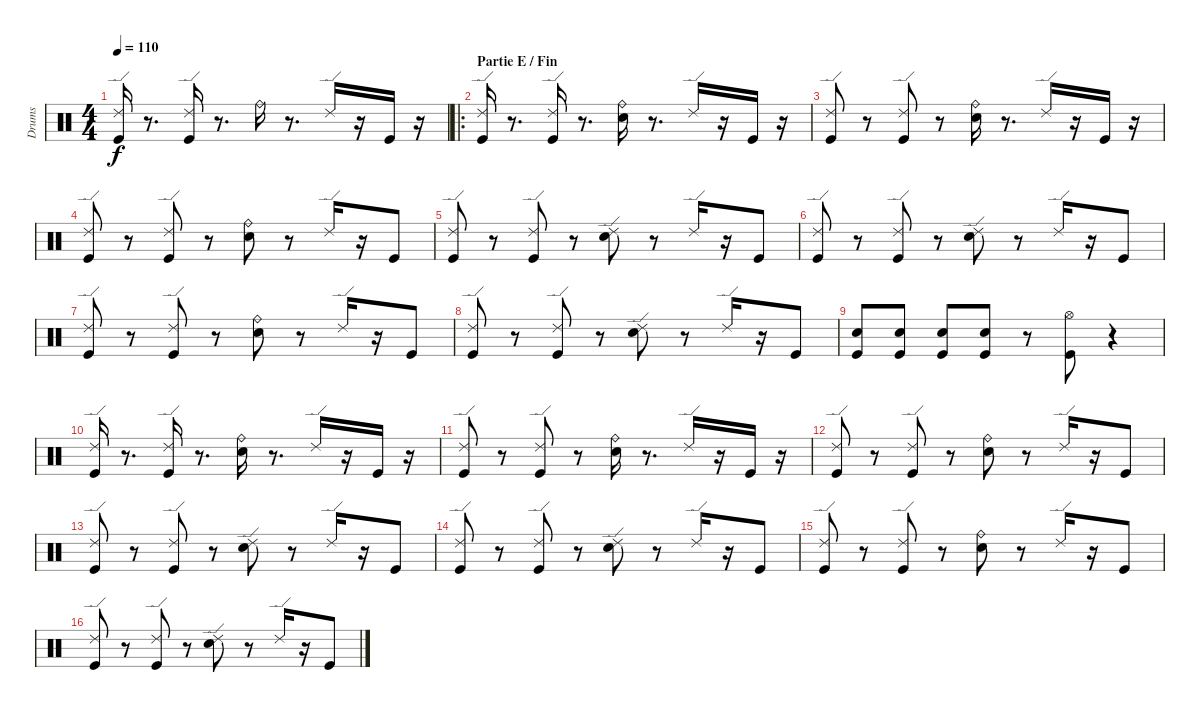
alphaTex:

\track ("Drums" "Drums") {instrument percussion}
\staff {score}
\articulation defaults
\ts (4 4)
\tempo 110
\clef neutral
\ks c
("Ride (edge) 2" "Kick (hit)").16{dy f} r.8{d} ("Ride (edge) 2" "Kick (hit)").16 r.8{d} "Ride (bell)".16 r.8{d} "Ride (edge) 2".16 r.16 "Kick (hit)".16 r.16 |
\ro
\section ("" "Partie E / Fin")
("Ride (edge) 2" "Kick (hit)").16 r.8{d} ("Ride (edge) 2" "Kick (hit)").16 r.8{d} ("Ride (bell)" "Snare (hit) 2").16 r.8{d} "Ride (edge) 2".16 r.16 "Kick (hit)".16 r.16 |
("Ride (edge) 2" "Kick (hit)").8 r.8 ("Ride (edge) 2" "Kick (hit)").8 r.8 ("Ride (bell)" "Electric Snare (hit)").16 r.8{d} "Ride (edge) 2".16 r.16 "Kick (hit)".16 r.16 |
("Ride (edge) 2" "Kick (hit)").8 r.8 ("Ride (edge) 2" "Kick (hit)").8 r.8 ("Ride (bell)" "Snare (hit) 2").8 r.8 "Ride (edge) 2".16 r.16 "Kick (hit)".8 |
("Ride (edge) 2" "Kick (hit)").8 r.8 ("Ride (edge) 2" "Kick (hit)").8 r.8 ("Ride (edge) 2" "Snare (hit) 2").8 r.8 "Ride (edge) 2".16 r.16 "Kick (hit)".8 |
("Ride (edge) 2" "Kick (hit)").8 r.8 ("Ride (edge) 2" "Kick (hit)").8 r.8 ("Ride (edge) 2" "Electric Snare (hit)").8 r.8 "Ride (edge) 2".16 r.16 "Kick (hit)".8 |
("Ride (edge) 2" "Kick (hit)").8 r.8 ("Ride (edge) 2" "Kick (hit)").8 r.8 ("Ride (bell)" "Electric Snare (hit)").8 r.8 "Ride (edge) 2".16 r.16 "Kick (hit)".8 |
("Ride (edge) 2" "Kick (hit)").8 r.8 ("Ride (edge) 2" "Kick (hit)").8 r.8 ("Ride (edge) 2" "Electric Snare (hit)").8 r.8 "Ride (edge) 2".16 r.16 "Kick (hit)".8 |
("Snare (hit) 2" "Kick (hit)").8 ("Electric Snare (hit)" "Kick (hit)").8 ("Snare (hit) 2" "Kick (hit)").8 ("Electric Snare (hit)" "Kick (hit)").8 r.8 ("Hi-Hat (open)" "Kick (hit)").8 r.4 |
("Ride (edge) 2" "Kick (hit)").16 r.8{d} ("Ride (edge) 2" "Kick (hit)").16 r.8{d} ("Ride (bell)" "Snare (hit) 2").16 r.8{d} "Ride (edge) 2".16 r.16 "Kick (hit)".16 r.16 |
("Ride (edge) 2" "Kick (hit)").8 r.8 ("Ride (edge) 2" "Kick (hit)").8 r.8 ("Ride (bell)" "Electric Snare (hit)").16 r.8{d} "Ride (edge) 2".16 r.16 "Kick (hit)".16 r.16 |
("Ride (edge) 2" "Kick (hit)").8 r.8 ("Ride (edge) 2" "Kick (hit)").8 r.8 ("Ride (bell)" "Snare (hit) 2").8 r.8 "Ride (edge) 2".16 r.16 "Kick (hit)".8 |
("Ride (edge) 2" "Kick (hit)").8 r.8 ("Ride (edge) 2" "Kick (hit)").8 r.8 ("Ride (edge) 2" "Snare (hit) 2").8 r.8 "Ride (edge) 2".16 r.16 "Kick (hit)".8 |
("Ride (edge) 2" "Kick (hit)").8 r.8 ("Ride (edge) 2" "Kick (hit)").8 r.8 ("Ride (edge) 2" "Electric Snare (hit)").8 r.8 "Ride (edge) 2".16 r.16 "Kick (hit)".8 |
("Ride (edge) 2" "Kick (hit)").8 r.8 ("Ride (edge) 2" "Kick (hit)").8 r.8 ("Ride (bell)" "Electric Snare (hit)").8 r.8 "Ride (edge) 2".16 r.16 "Kick (hit)".8 |
("Ride (edge) 2" "Kick (hit)").8 r.8 ("Ride (edge) 2" "Kick (hit)").8 r.8 ("Ride (edge) 2" "Electric Snare (hit)").8 r.8 "Ride (edge) 2".16 r.16 "Kick (hit)".8
